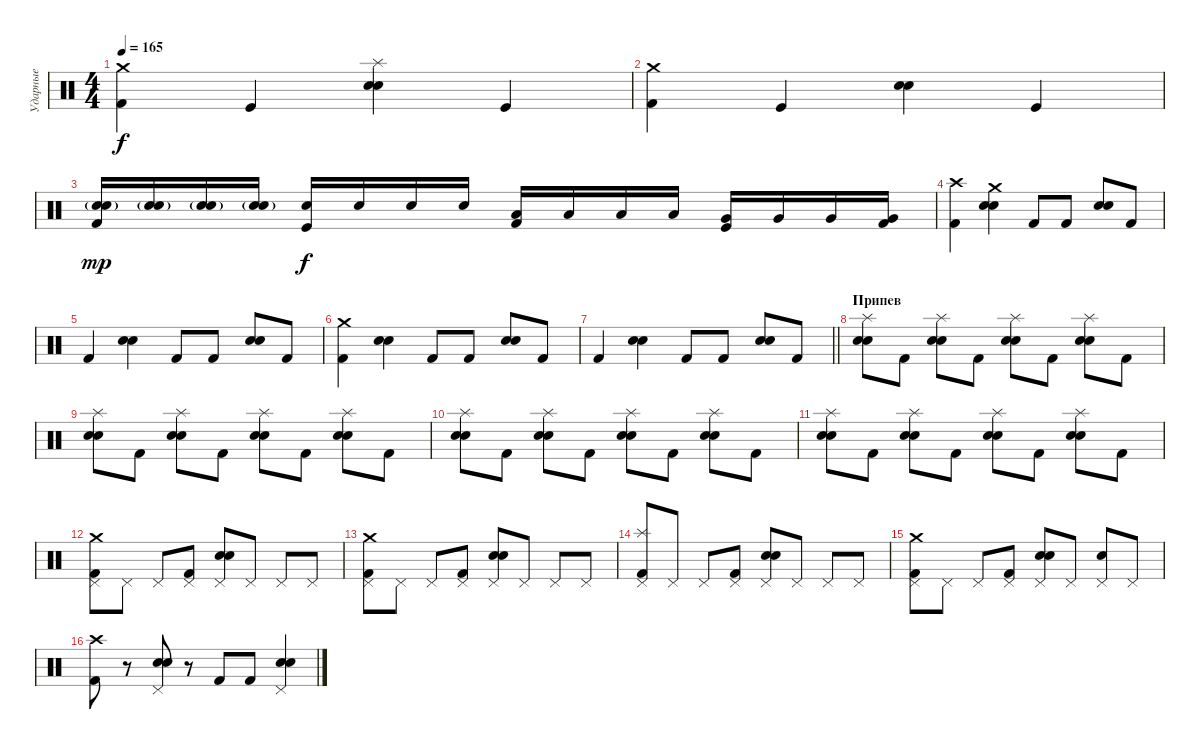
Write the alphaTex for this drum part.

\track ("Ударные" "Ударные") {instrument percussion}
\staff {score}
\articulation defaults
\ts (4 4)
\tempo 165
\clef neutral
\ks c
("Crash medium (hit)" "Kick (hit) 2").4{dy f} "Kick (hit)".4 ("Splash (hit)" "Electric Snare (hit)" "Snare (hit) 2").4 "Kick (hit)".4 |
("Crash medium (hit)" "Kick (hit) 2").4 "Kick (hit)".4 ("Electric Snare (hit)" "Snare (hit) 2").4 "Kick (hit)".4 |
("Electric Snare (hit)" "Snare (hit) 2"{g} "Kick (hit) 2").16{dy mp} ("Electric Snare (hit)" "Snare (hit) 2"{g}).16 ("Electric Snare (hit)" "Snare (hit) 2"{g}).16 ("Electric Snare (hit)" "Snare (hit) 2"{g}).16 ("Electric Snare (hit)" "Kick (hit)").16{dy f} "Electric Snare (hit)".16 "Electric Snare (hit)".16 "Electric Snare (hit)".16 ("Low Tom (hit)" "Kick (hit) 2").16 "Low Tom (hit)".16 "Low Tom (hit)".16 "Low Tom (hit)".16 ("Very Low Tom (hit)" "Kick (hit)").16 "Very Low Tom (hit)".16 "Very Low Tom (hit)".16 ("Very Low Tom (hit)" "Kick (hit) 2").16 |
("Crash high (hit)" "Kick (hit) 2").4 ("Crash medium (hit)" "Electric Snare (hit)" "Snare (hit) 2").4 "Kick (hit) 2".8 "Kick (hit) 2".8 ("Electric Snare (hit)" "Snare (hit) 2").8 "Kick (hit) 2".8 |
"Kick (hit) 2".4 ("Electric Snare (hit)" "Snare (hit) 2").4 "Kick (hit) 2".8 "Kick (hit) 2".8 ("Electric Snare (hit)" "Snare (hit) 2").8 "Kick (hit) 2".8 |
("Crash medium (hit)" "Kick (hit) 2").4 ("Electric Snare (hit)" "Snare (hit) 2").4 "Kick (hit) 2".8 "Kick (hit) 2".8 ("Electric Snare (hit)" "Snare (hit) 2").8 "Kick (hit) 2".8 |
\barLineRight lightlight "Kick (hit) 2".4
("Electric Snare (hit)" "Snare (hit) 2").4 "Kick (hit) 2".8 "Kick (hit) 2".8 ("Electric Snare (hit)" "Snare (hit) 2").8 "Kick (hit) 2".8 |
\section ("" "Припев")
("Splash (hit)" "Electric Snare (hit)" "Snare (hit) 2").8 "Kick (hit) 2".8 ("Splash (hit)" "Electric Snare (hit)" "Snare (hit) 2").8 "Kick (hit) 2".8 ("Splash (hit)" "Electric Snare (hit)" "Snare (hit) 2").8 "Kick (hit) 2".8 ("Splash (hit)" "Electric Snare (hit)" "Snare (hit) 2").8 "Kick (hit) 2".8 |
("Splash (hit)" "Electric Snare (hit)" "Snare (hit) 2").8 "Kick (hit) 2".8 ("Splash (hit)" "Electric Snare (hit)" "Snare (hit) 2").8 "Kick (hit) 2".8 ("Splash (hit)" "Electric Snare (hit)" "Snare (hit) 2").8 "Kick (hit) 2".8 ("Splash (hit)" "Electric Snare (hit)" "Snare (hit) 2").8 "Kick (hit) 2".8 |
("Splash (hit)" "Electric Snare (hit)" "Snare (hit) 2").8 "Kick (hit) 2".8 ("Splash (hit)" "Electric Snare (hit)" "Snare (hit) 2").8 "Kick (hit) 2".8 ("Splash (hit)" "Electric Snare (hit)" "Snare (hit) 2").8 "Kick (hit) 2".8 ("Splash (hit)" "Electric Snare (hit)" "Snare (hit) 2").8 "Kick (hit) 2".8 |
("Splash (hit)" "Electric Snare (hit)" "Snare (hit) 2").8 "Kick (hit) 2".8 ("Splash (hit)" "Electric Snare (hit)" "Snare (hit) 2").8 "Kick (hit) 2".8 ("Splash (hit)" "Electric Snare (hit)" "Snare (hit) 2").8 "Kick (hit) 2".8 ("Splash (hit)" "Electric Snare (hit)" "Snare (hit) 2").8 "Kick (hit) 2".8 |
("Crash medium (hit)" "Pedal Hi-Hat (hit)" "Kick (hit) 2").8 "Pedal Hi-Hat (hit)".8 "Pedal Hi-Hat (hit)".8 ("Pedal Hi-Hat (hit)" "Kick (hit) 2").8 ("Pedal Hi-Hat (hit)" "Electric Snare (hit)" "Snare (hit) 2").8 "Pedal Hi-Hat (hit)".8 "Pedal Hi-Hat (hit)".8 "Pedal Hi-Hat (hit)".8 |
("Crash medium (hit)" "Pedal Hi-Hat (hit)" "Kick (hit) 2").8 "Pedal Hi-Hat (hit)".8 "Pedal Hi-Hat (hit)".8 ("Pedal Hi-Hat (hit)" "Kick (hit) 2").8 ("Pedal Hi-Hat (hit)" "Electric Snare (hit)" "Snare (hit) 2").8 "Pedal Hi-Hat (hit)".8 "Pedal Hi-Hat (hit)".8 "Pedal Hi-Hat (hit)".8 |
("Splash (hit)" "Pedal Hi-Hat (hit)" "Kick (hit) 2").8 "Pedal Hi-Hat (hit)".8 "Pedal Hi-Hat (hit)".8 ("Pedal Hi-Hat (hit)" "Kick (hit) 2").8 ("Pedal Hi-Hat (hit)" "Electric Snare (hit)" "Snare (hit) 2").8 "Pedal Hi-Hat (hit)".8 "Pedal Hi-Hat (hit)".8 "Pedal Hi-Hat (hit)".8 |
("Crash medium (hit)" "Pedal Hi-Hat (hit)" "Kick (hit) 2").8 "Pedal Hi-Hat (hit)".8 "Pedal Hi-Hat (hit)".8 ("Pedal Hi-Hat (hit)" "Kick (hit) 2").8 ("Pedal Hi-Hat (hit)" "Electric Snare (hit)" "Snare (hit) 2").8 "Pedal Hi-Hat (hit)".8 ("Pedal Hi-Hat (hit)" "Electric Snare (hit)").8 "Pedal Hi-Hat (hit)".8 |
("Crash high (hit)" "Kick (hit) 2").8 r.8 ("Pedal Hi-Hat (hit)" "Electric Snare (hit)" "Snare (hit) 2").8 r.8 "Kick (hit) 2".8 "Kick (hit) 2".8 ("Pedal Hi-Hat (hit)" "Electric Snare (hit)" "Snare (hit) 2").4
